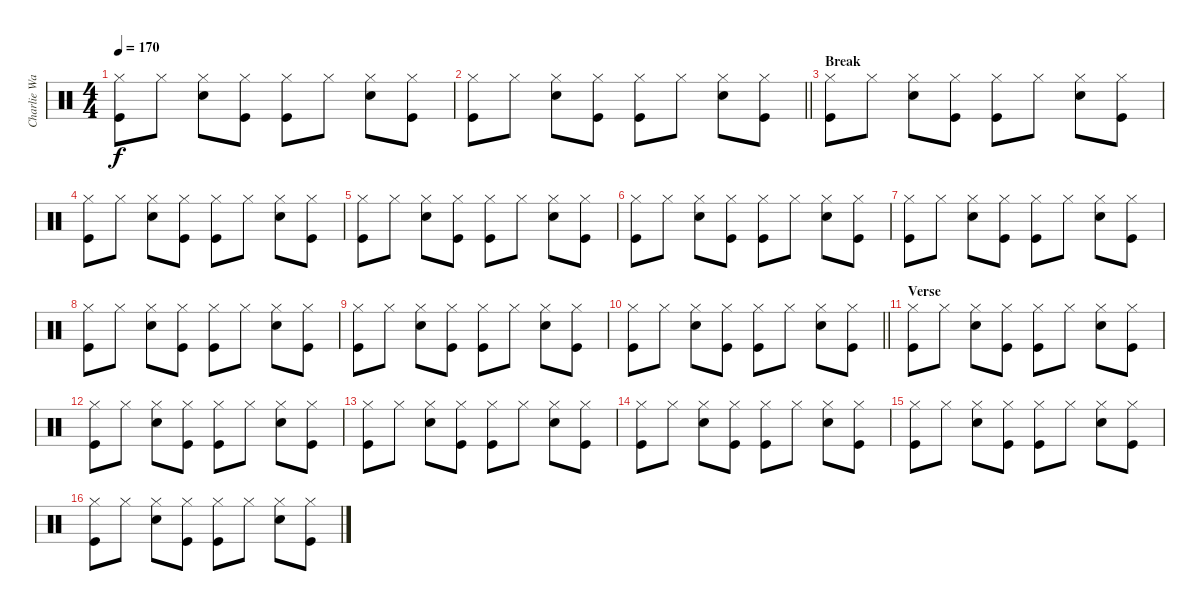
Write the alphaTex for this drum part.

\track ("Charlie Watts" "Charlie Wa") {instrument percussion}
\staff {score}
\articulation defaults
\ts (4 4)
\tempo 170
\clef neutral
\ks c
("Hi-Hat (closed)" "Kick (hit)").8{dy f} "Hi-Hat (closed)".8 ("Hi-Hat (closed)" "Snare (hit) 2").8 ("Hi-Hat (closed)" "Kick (hit)").8 ("Hi-Hat (closed)" "Kick (hit)").8 "Hi-Hat (closed)".8 ("Hi-Hat (closed)" "Snare (hit) 2").8 ("Hi-Hat (closed)" "Kick (hit)").8 |
\barLineRight lightlight
("Hi-Hat (closed)" "Kick (hit)").8 "Hi-Hat (closed)".8 ("Hi-Hat (closed)" "Snare (hit) 2").8 ("Hi-Hat (closed)" "Kick (hit)").8 ("Hi-Hat (closed)" "Kick (hit)").8 "Hi-Hat (closed)".8 ("Hi-Hat (closed)" "Snare (hit) 2").8 ("Hi-Hat (closed)" "Kick (hit)").8 |
\section ("" "Break")
("Hi-Hat (closed)" "Kick (hit)").8 "Hi-Hat (closed)".8 ("Hi-Hat (closed)" "Snare (hit) 2").8 ("Hi-Hat (closed)" "Kick (hit)").8 ("Hi-Hat (closed)" "Kick (hit)").8 "Hi-Hat (closed)".8 ("Hi-Hat (closed)" "Snare (hit) 2").8 ("Hi-Hat (closed)" "Kick (hit)").8 |
("Hi-Hat (closed)" "Kick (hit)").8 "Hi-Hat (closed)".8 ("Hi-Hat (closed)" "Snare (hit) 2").8 ("Hi-Hat (closed)" "Kick (hit)").8 ("Hi-Hat (closed)" "Kick (hit)").8 "Hi-Hat (closed)".8 ("Hi-Hat (closed)" "Snare (hit) 2").8 ("Hi-Hat (closed)" "Kick (hit)").8 |
("Hi-Hat (closed)" "Kick (hit)").8 "Hi-Hat (closed)".8 ("Hi-Hat (closed)" "Snare (hit) 2").8 ("Hi-Hat (closed)" "Kick (hit)").8 ("Hi-Hat (closed)" "Kick (hit)").8 "Hi-Hat (closed)".8 ("Hi-Hat (closed)" "Snare (hit) 2").8 ("Hi-Hat (closed)" "Kick (hit)").8 |
("Hi-Hat (closed)" "Kick (hit)").8 "Hi-Hat (closed)".8 ("Hi-Hat (closed)" "Snare (hit) 2").8 ("Hi-Hat (closed)" "Kick (hit)").8 ("Hi-Hat (closed)" "Kick (hit)").8 "Hi-Hat (closed)".8 ("Hi-Hat (closed)" "Snare (hit) 2").8 ("Hi-Hat (closed)" "Kick (hit)").8 |
("Hi-Hat (closed)" "Kick (hit)").8 "Hi-Hat (closed)".8 ("Hi-Hat (closed)" "Snare (hit) 2").8 ("Hi-Hat (closed)" "Kick (hit)").8 ("Hi-Hat (closed)" "Kick (hit)").8 "Hi-Hat (closed)".8 ("Hi-Hat (closed)" "Snare (hit) 2").8 ("Hi-Hat (closed)" "Kick (hit)").8 |
("Hi-Hat (closed)" "Kick (hit)").8 "Hi-Hat (closed)".8 ("Hi-Hat (closed)" "Snare (hit) 2").8 ("Hi-Hat (closed)" "Kick (hit)").8 ("Hi-Hat (closed)" "Kick (hit)").8 "Hi-Hat (closed)".8 ("Hi-Hat (closed)" "Snare (hit) 2").8 ("Hi-Hat (closed)" "Kick (hit)").8 |
("Hi-Hat (closed)" "Kick (hit)").8 "Hi-Hat (closed)".8 ("Hi-Hat (closed)" "Snare (hit) 2").8 ("Hi-Hat (closed)" "Kick (hit)").8 ("Hi-Hat (closed)" "Kick (hit)").8 "Hi-Hat (closed)".8 ("Hi-Hat (closed)" "Snare (hit) 2").8 ("Hi-Hat (closed)" "Kick (hit)").8 |
\barLineRight lightlight
("Hi-Hat (closed)" "Kick (hit)").8 "Hi-Hat (closed)".8 ("Hi-Hat (closed)" "Snare (hit) 2").8 ("Hi-Hat (closed)" "Kick (hit)").8 ("Hi-Hat (closed)" "Kick (hit)").8 "Hi-Hat (closed)".8 ("Hi-Hat (closed)" "Snare (hit) 2").8 ("Hi-Hat (closed)" "Kick (hit)").8 |
\section ("" "Verse")
("Hi-Hat (closed)" "Kick (hit)").8 "Hi-Hat (closed)".8 ("Hi-Hat (closed)" "Snare (hit) 2").8 ("Hi-Hat (closed)" "Kick (hit)").8 ("Hi-Hat (closed)" "Kick (hit)").8 "Hi-Hat (closed)".8 ("Hi-Hat (closed)" "Snare (hit) 2").8 ("Hi-Hat (closed)" "Kick (hit)").8 |
("Hi-Hat (closed)" "Kick (hit)").8 "Hi-Hat (closed)".8 ("Hi-Hat (closed)" "Snare (hit) 2").8 ("Hi-Hat (closed)" "Kick (hit)").8 ("Hi-Hat (closed)" "Kick (hit)").8 "Hi-Hat (closed)".8 ("Hi-Hat (closed)" "Snare (hit) 2").8 ("Hi-Hat (closed)" "Kick (hit)").8 |
("Hi-Hat (closed)" "Kick (hit)").8 "Hi-Hat (closed)".8 ("Hi-Hat (closed)" "Snare (hit) 2").8 ("Hi-Hat (closed)" "Kick (hit)").8 ("Hi-Hat (closed)" "Kick (hit)").8 "Hi-Hat (closed)".8 ("Hi-Hat (closed)" "Snare (hit) 2").8 ("Hi-Hat (closed)" "Kick (hit)").8 |
("Hi-Hat (closed)" "Kick (hit)").8 "Hi-Hat (closed)".8 ("Hi-Hat (closed)" "Snare (hit) 2").8 ("Hi-Hat (closed)" "Kick (hit)").8 ("Hi-Hat (closed)" "Kick (hit)").8 "Hi-Hat (closed)".8 ("Hi-Hat (closed)" "Snare (hit) 2").8 ("Hi-Hat (closed)" "Kick (hit)").8 |
("Hi-Hat (closed)" "Kick (hit)").8 "Hi-Hat (closed)".8 ("Hi-Hat (closed)" "Snare (hit) 2").8 ("Hi-Hat (closed)" "Kick (hit)").8 ("Hi-Hat (closed)" "Kick (hit)").8 "Hi-Hat (closed)".8 ("Hi-Hat (closed)" "Snare (hit) 2").8 ("Hi-Hat (closed)" "Kick (hit)").8 |
("Hi-Hat (closed)" "Kick (hit)").8 "Hi-Hat (closed)".8 ("Hi-Hat (closed)" "Snare (hit) 2").8 ("Hi-Hat (closed)" "Kick (hit)").8 ("Hi-Hat (closed)" "Kick (hit)").8 "Hi-Hat (closed)".8 ("Hi-Hat (closed)" "Snare (hit) 2").8 ("Hi-Hat (closed)" "Kick (hit)").8
